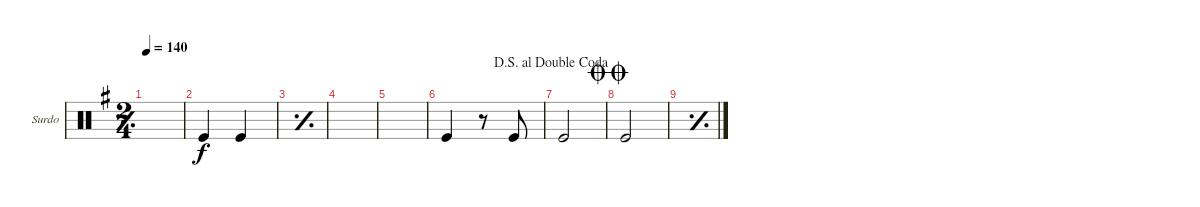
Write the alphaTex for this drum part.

\defaultSystemsLayout 4
\bracketExtendMode groupsimilarinstruments
\firstSystemTrackNameOrientation horizontal
\otherSystemsTrackNameOrientation horizontal
\track ("Surdo" "Surdo") {instrument percussion}
\staff {score}
\articulation defaults
\ts (2 4)
\tempo 140
\clef neutral
\simile simple
\ks g
|
\simile none "Kick (hit)".4 "Kick (hit)".4
|
\simile simple
|
|
|
\simile none "Kick (hit)".4
r.8 "Kick (hit)".8 |
\jump dalsegnoaldoublecoda "Kick (hit)".2
|
\jump doublecoda "Kick (hit)".2
|
\simile simple
